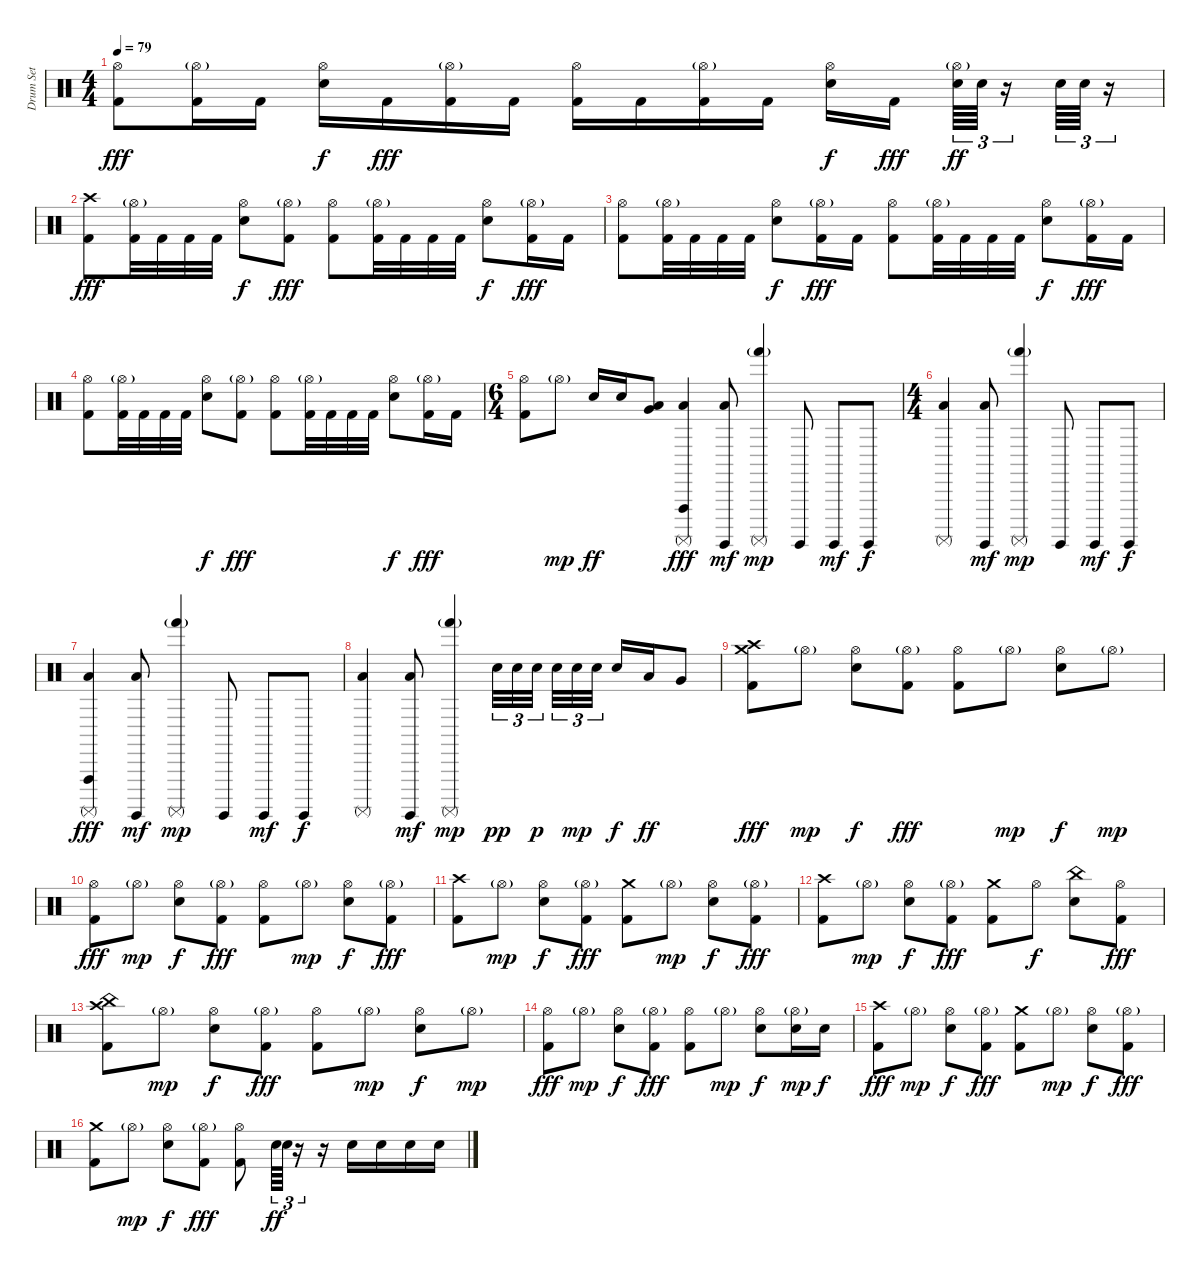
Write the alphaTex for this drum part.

\track ("Drum Set" "Drum Set") {instrument percussion}
\staff {score}
\articulation defaults
\ts (4 4)
\tempo 79
\clef neutral
\ks c
("Hi-Hat (open)" "Kick (hit) 2").8{dy fff} ("Hi-Hat (open)"{g} "Kick (hit) 2").16 "Kick (hit) 2".16 ("Hi-Hat (open)" "Snare (hit) 2").16{dy f} "Kick (hit) 2".16{dy fff} ("Hi-Hat (open)"{g} "Kick (hit) 2").16 "Kick (hit) 2".16 ("Hi-Hat (open)" "Kick (hit) 2").16 "Kick (hit) 2".16 ("Hi-Hat (open)"{g} "Kick (hit) 2").16 "Kick (hit) 2".16 ("Hi-Hat (open)" "Snare (hit) 2").16{dy f} "Kick (hit) 2".16{dy fff} ("Hi-Hat (open)"{g} "Snare (hit) 2").64{tu (3 2) dy ff} "Snare (hit) 2".64{tu (3 2)} r.16{tu (3 2)} "Snare (hit) 2".64{tu (3 2)} "Snare (hit) 2".64{tu (3 2)} r.16{tu (3 2)} |
("Crash high (hit)" "Kick (hit) 2").8{dy fff} ("Hi-Hat (open)"{g} "Kick (hit) 2").32 "Kick (hit) 2".32 "Kick (hit) 2".32 "Kick (hit) 2".32 ("Hi-Hat (open)" "Snare (hit) 2").8{dy f} ("Hi-Hat (open)"{g} "Kick (hit) 2").8{dy fff} ("Hi-Hat (open)" "Kick (hit) 2").8 ("Hi-Hat (open)"{g} "Kick (hit) 2").32 "Kick (hit) 2".32 "Kick (hit) 2".32 "Kick (hit) 2".32 ("Hi-Hat (open)" "Snare (hit) 2").8{dy f} ("Hi-Hat (open)"{g} "Kick (hit) 2").16{dy fff} "Kick (hit) 2".16 |
("Hi-Hat (open)" "Kick (hit) 2").8 ("Hi-Hat (open)"{g} "Kick (hit) 2").32 "Kick (hit) 2".32 "Kick (hit) 2".32 "Kick (hit) 2".32 ("Hi-Hat (open)" "Snare (hit) 2").8{dy f} ("Hi-Hat (open)"{g} "Kick (hit) 2").16{dy fff} "Kick (hit) 2".16 ("Hi-Hat (open)" "Kick (hit) 2").8 ("Hi-Hat (open)"{g} "Kick (hit) 2").32 "Kick (hit) 2".32 "Kick (hit) 2".32 "Kick (hit) 2".32 ("Hi-Hat (open)" "Snare (hit) 2").8{dy f} ("Hi-Hat (open)"{g} "Kick (hit) 2").16{dy fff} "Kick (hit) 2".16 |
("Hi-Hat (open)" "Kick (hit) 2").8 ("Hi-Hat (open)"{g} "Kick (hit) 2").32 "Kick (hit) 2".32 "Kick (hit) 2".32 "Kick (hit) 2".32 ("Hi-Hat (open)" "Snare (hit) 2").8{dy f} ("Hi-Hat (open)"{g} "Kick (hit) 2").8{dy fff} ("Hi-Hat (open)" "Kick (hit) 2").8 ("Hi-Hat (open)"{g} "Kick (hit) 2").32 "Kick (hit) 2".32 "Kick (hit) 2".32 "Kick (hit) 2".32 ("Hi-Hat (open)" "Snare (hit) 2").8{dy f} ("Hi-Hat (open)"{g} "Kick (hit) 2").16{dy fff} "Kick (hit) 2".16 |
\ts (6 4)
("Hi-Hat (open)" "Kick (hit) 2").8 "Hi-Hat (open)"{g}.8{dy mp} "Snare (hit) 2".16{dy ff} "Snare (hit) 2".16 ("Low Floor Tom (hit)" "Very Low Tom (hit)").8 ("Vibraslap (hit)" "Low Floor Tom (hit)" "Surdo (mute)").4{dy fff} ("Low Floor Tom (hit)" "Surdo (hit)").8{dy mf} ("Surdo (mute)" "Hand (hit)"{g}).4{dy mp} "Surdo (hit)".8 "Surdo (hit)".8{dy mf} "Surdo (hit)".8{dy f} |
\ts (4 4)
("Low Floor Tom (hit)" "Surdo (mute)").4 ("Low Floor Tom (hit)" "Surdo (hit)").8{dy mf} ("Surdo (mute)" "Hand (hit)"{g}).4{dy mp} "Surdo (hit)".8 "Surdo (hit)".8{dy mf} "Surdo (hit)".8{dy f} |
("Vibraslap (hit)" "Low Floor Tom (hit)" "Surdo (mute)").4{dy fff} ("Low Floor Tom (hit)" "Surdo (hit)").8{dy mf} ("Surdo (mute)" "Hand (hit)"{g}).4{dy mp} "Surdo (hit)".8 "Surdo (hit)".8{dy mf} "Surdo (hit)".8{dy f} |
("Low Floor Tom (hit)" "Surdo (mute)").4 ("Low Floor Tom (hit)" "Surdo (hit)").8{dy mf} ("Surdo (mute)" "Hand (hit)"{g}).4{dy mp} "Snare (hit) 2".32{tu (3 2) dy pp} "Snare (hit) 2".32{tu (3 2)} "Snare (hit) 2".32{tu (3 2) dy p} "Snare (hit) 2".32{tu (3 2)} "Snare (hit) 2".32{tu (3 2) dy mp} "Snare (hit) 2".32{tu (3 2)} "Snare (hit) 2".16{dy f} "Low Tom (hit)".16{dy ff} "Very Low Tom (hit)".8 |
("Crash high (hit)" "Crash medium (hit)" "Kick (hit) 2").8{dy fff volume 16} "Hi-Hat (open)"{g}.8{dy mp} ("Hi-Hat (open)" "Snare (hit) 2").8{dy f} ("Hi-Hat (open)"{g} "Kick (hit) 2").8{dy fff} ("Hi-Hat (open)" "Kick (hit) 2").8 "Hi-Hat (open)"{g}.8{dy mp} ("Hi-Hat (open)" "Snare (hit) 2").8{dy f} "Hi-Hat (open)"{g}.8{dy mp} |
("Hi-Hat (open)" "Kick (hit) 2").8{dy fff} "Hi-Hat (open)"{g}.8{dy mp} ("Hi-Hat (open)" "Snare (hit) 2").8{dy f} ("Hi-Hat (open)"{g} "Kick (hit) 2").8{dy fff} ("Hi-Hat (open)" "Kick (hit) 2").8 "Hi-Hat (open)"{g}.8{dy mp} ("Hi-Hat (open)" "Snare (hit) 2").8{dy f} ("Hi-Hat (open)"{g} "Kick (hit) 2").8{dy fff} |
("Crash high (hit)" "Kick (hit) 2").8 "Hi-Hat (open)"{g}.8{dy mp} ("Hi-Hat (open)" "Snare (hit) 2").8{dy f} ("Hi-Hat (open)"{g} "Kick (hit) 2").8{dy fff} ("Crash medium (hit)" "Kick (hit) 2").8 "Hi-Hat (open)"{g}.8{dy mp} ("Hi-Hat (open)" "Snare (hit) 2").8{dy f} ("Hi-Hat (open)"{g} "Kick (hit) 2").8{dy fff} |
("Crash high (hit)" "Kick (hit) 2").8 "Hi-Hat (open)"{g}.8{dy mp} ("Hi-Hat (open)" "Snare (hit) 2").8{dy f} ("Hi-Hat (open)"{g} "Kick (hit) 2").8{dy fff} ("Crash medium (hit)" "Kick (hit) 2").8 "Hi-Hat (open)".8{dy f} ("China (hit)" "Snare (hit) 2").8 ("Hi-Hat (open)" "Kick (hit) 2").8{dy fff} |
("Crash high (hit)" "China (hit)" "Kick (hit) 2").8 "Hi-Hat (open)"{g}.8{dy mp} ("Hi-Hat (open)" "Snare (hit) 2").8{dy f} ("Hi-Hat (open)"{g} "Kick (hit) 2").8{dy fff} ("Hi-Hat (open)" "Kick (hit) 2").8 "Hi-Hat (open)"{g}.8{dy mp} ("Hi-Hat (open)" "Snare (hit) 2").8{dy f} "Hi-Hat (open)"{g}.8{dy mp} |
("Hi-Hat (open)" "Kick (hit) 2").8{dy fff} "Hi-Hat (open)"{g}.8{dy mp} ("Hi-Hat (open)" "Snare (hit) 2").8{dy f} ("Hi-Hat (open)"{g} "Kick (hit) 2").8{dy fff} ("Hi-Hat (open)" "Kick (hit) 2").8 "Hi-Hat (open)"{g}.8{dy mp} ("Hi-Hat (open)" "Snare (hit) 2").8{dy f} ("Hi-Hat (open)"{g} "Snare (hit) 2").16{dy mp} "Snare (hit) 2".16{dy f} |
("Crash high (hit)" "Kick (hit) 2").8{dy fff} "Hi-Hat (open)"{g}.8{dy mp} ("Hi-Hat (open)" "Snare (hit) 2").8{dy f} ("Hi-Hat (open)"{g} "Kick (hit) 2").8{dy fff} ("Crash medium (hit)" "Kick (hit) 2").8 "Hi-Hat (open)"{g}.8{dy mp} ("Hi-Hat (open)" "Snare (hit) 2").8{dy f} ("Hi-Hat (open)"{g} "Kick (hit) 2").8{dy fff} |
("Crash medium (hit)" "Kick (hit) 2").8 "Hi-Hat (open)"{g}.8{dy mp} ("Hi-Hat (open)" "Snare (hit) 2").8{dy f} ("Hi-Hat (open)"{g} "Kick (hit) 2").8{dy fff} ("Hi-Hat (open)" "Kick (hit) 2").8 "Snare (hit) 2".64{tu (3 2) dy ff} "Snare (hit) 2".64{tu (3 2)} r.16{tu (3 2)} r.16 "Snare (hit) 2".16 "Snare (hit) 2".16 "Snare (hit) 2".16 "Snare (hit) 2".16
